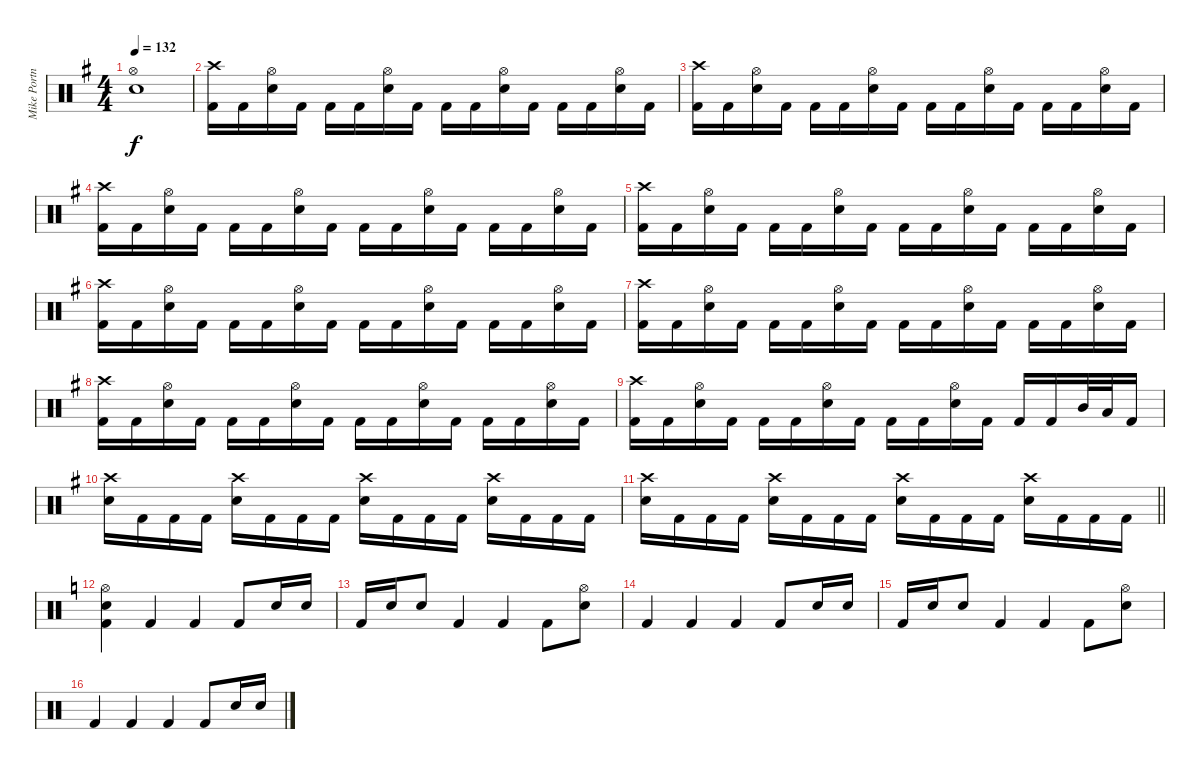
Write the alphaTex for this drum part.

\track ("Mike Portnoy" "Mike Portn") {instrument percussion}
\staff {score}
\articulation defaults
\ts (4 4)
\tempo 132
\clef neutral
\ks g
("Hi-Hat (open)" "Snare (hit) 2").1{dy f} |
("Crash high (hit)" "Kick (hit) 2").16 "Kick (hit) 2".16 ("Hi-Hat (open)" "Snare (hit) 2").16 "Kick (hit) 2".16 "Kick (hit) 2".16 "Kick (hit) 2".16 ("Hi-Hat (open)" "Snare (hit) 2").16 "Kick (hit) 2".16 "Kick (hit) 2".16 "Kick (hit) 2".16 ("Hi-Hat (open)" "Snare (hit) 2").16 "Kick (hit) 2".16 "Kick (hit) 2".16 "Kick (hit) 2".16 ("Hi-Hat (open)" "Snare (hit) 2").16 "Kick (hit) 2".16 |
("Crash high (hit)" "Kick (hit) 2").16 "Kick (hit) 2".16 ("Hi-Hat (open)" "Snare (hit) 2").16 "Kick (hit) 2".16 "Kick (hit) 2".16 "Kick (hit) 2".16 ("Hi-Hat (open)" "Snare (hit) 2").16 "Kick (hit) 2".16 "Kick (hit) 2".16 "Kick (hit) 2".16 ("Hi-Hat (open)" "Snare (hit) 2").16 "Kick (hit) 2".16 "Kick (hit) 2".16 "Kick (hit) 2".16 ("Hi-Hat (open)" "Snare (hit) 2").16 "Kick (hit) 2".16 |
("Crash high (hit)" "Kick (hit) 2").16 "Kick (hit) 2".16 ("Hi-Hat (open)" "Snare (hit) 2").16 "Kick (hit) 2".16 "Kick (hit) 2".16 "Kick (hit) 2".16 ("Hi-Hat (open)" "Snare (hit) 2").16 "Kick (hit) 2".16 "Kick (hit) 2".16 "Kick (hit) 2".16 ("Hi-Hat (open)" "Snare (hit) 2").16 "Kick (hit) 2".16 "Kick (hit) 2".16 "Kick (hit) 2".16 ("Hi-Hat (open)" "Snare (hit) 2").16 "Kick (hit) 2".16 |
("Crash high (hit)" "Kick (hit) 2").16 "Kick (hit) 2".16 ("Hi-Hat (open)" "Snare (hit) 2").16 "Kick (hit) 2".16 "Kick (hit) 2".16 "Kick (hit) 2".16 ("Hi-Hat (open)" "Snare (hit) 2").16 "Kick (hit) 2".16 "Kick (hit) 2".16 "Kick (hit) 2".16 ("Hi-Hat (open)" "Snare (hit) 2").16 "Kick (hit) 2".16 "Kick (hit) 2".16 "Kick (hit) 2".16 ("Hi-Hat (open)" "Snare (hit) 2").16 "Kick (hit) 2".16 |
("Crash high (hit)" "Kick (hit) 2").16 "Kick (hit) 2".16 ("Hi-Hat (open)" "Snare (hit) 2").16 "Kick (hit) 2".16 "Kick (hit) 2".16 "Kick (hit) 2".16 ("Hi-Hat (open)" "Snare (hit) 2").16 "Kick (hit) 2".16 "Kick (hit) 2".16 "Kick (hit) 2".16 ("Hi-Hat (open)" "Snare (hit) 2").16 "Kick (hit) 2".16 "Kick (hit) 2".16 "Kick (hit) 2".16 ("Hi-Hat (open)" "Snare (hit) 2").16 "Kick (hit) 2".16 |
("Crash high (hit)" "Kick (hit) 2").16 "Kick (hit) 2".16 ("Hi-Hat (open)" "Snare (hit) 2").16 "Kick (hit) 2".16 "Kick (hit) 2".16 "Kick (hit) 2".16 ("Hi-Hat (open)" "Snare (hit) 2").16 "Kick (hit) 2".16 "Kick (hit) 2".16 "Kick (hit) 2".16 ("Hi-Hat (open)" "Snare (hit) 2").16 "Kick (hit) 2".16 "Kick (hit) 2".16 "Kick (hit) 2".16 ("Hi-Hat (open)" "Snare (hit) 2").16 "Kick (hit) 2".16 |
("Crash high (hit)" "Kick (hit) 2").16 "Kick (hit) 2".16 ("Hi-Hat (open)" "Snare (hit) 2").16 "Kick (hit) 2".16 "Kick (hit) 2".16 "Kick (hit) 2".16 ("Hi-Hat (open)" "Snare (hit) 2").16 "Kick (hit) 2".16 "Kick (hit) 2".16 "Kick (hit) 2".16 ("Hi-Hat (open)" "Snare (hit) 2").16 "Kick (hit) 2".16 "Kick (hit) 2".16 "Kick (hit) 2".16 ("Hi-Hat (open)" "Snare (hit) 2").16 "Kick (hit) 2".16 |
("Crash high (hit)" "Kick (hit) 2").16 "Kick (hit) 2".16 ("Hi-Hat (open)" "Snare (hit) 2").16 "Kick (hit) 2".16 "Kick (hit) 2".16 "Kick (hit) 2".16 ("Hi-Hat (open)" "Snare (hit) 2").16 "Kick (hit) 2".16 "Kick (hit) 2".16 "Kick (hit) 2".16 ("Hi-Hat (open)" "Snare (hit) 2").16 "Kick (hit) 2".16 "Kick (hit) 2".16 "Kick (hit) 2".16 "Mid Tom (hit)".32 "Low Tom (hit)".32 "Kick (hit) 2".16 |
("Crash high (hit)" "Snare (hit) 2").16 "Kick (hit) 2".16 "Kick (hit) 2".16 "Kick (hit) 2".16 ("Crash high (hit)" "Snare (hit) 2").16 "Kick (hit) 2".16 "Kick (hit) 2".16 "Kick (hit) 2".16 ("Crash high (hit)" "Snare (hit) 2").16 "Kick (hit) 2".16 "Kick (hit) 2".16 "Kick (hit) 2".16 ("Crash high (hit)" "Snare (hit) 2").16 "Kick (hit) 2".16 "Kick (hit) 2".16 "Kick (hit) 2".16 |
\barLineRight lightlight
("Crash high (hit)" "Snare (hit) 2").16 "Kick (hit) 2".16 "Kick (hit) 2".16 "Kick (hit) 2".16 ("Crash high (hit)" "Snare (hit) 2").16 "Kick (hit) 2".16 "Kick (hit) 2".16 "Kick (hit) 2".16 ("Crash high (hit)" "Snare (hit) 2").16 "Kick (hit) 2".16 "Kick (hit) 2".16 "Kick (hit) 2".16 ("Crash high (hit)" "Snare (hit) 2").16 "Kick (hit) 2".16 "Kick (hit) 2".16 "Kick (hit) 2".16 |
\ks c
("Hi-Hat (open)" "Snare (hit) 2" "Kick (hit) 2").4 "Kick (hit) 2".4 "Kick (hit) 2".4 "Kick (hit) 2".8 "Snare (hit) 2".16 "Snare (hit) 2".16 |
"Kick (hit) 2".16 "Snare (hit) 2".16 "Snare (hit) 2".8 "Kick (hit) 2".4 "Kick (hit) 2".4 "Kick (hit) 2".8 ("Hi-Hat (open)" "Snare (hit) 2").8 |
"Kick (hit) 2".4 "Kick (hit) 2".4 "Kick (hit) 2".4 "Kick (hit) 2".8 "Snare (hit) 2".16 "Snare (hit) 2".16 |
"Kick (hit) 2".16 "Snare (hit) 2".16 "Snare (hit) 2".8 "Kick (hit) 2".4 "Kick (hit) 2".4 "Kick (hit) 2".8 ("Hi-Hat (open)" "Snare (hit) 2").8 |
"Kick (hit) 2".4 "Kick (hit) 2".4 "Kick (hit) 2".4 "Kick (hit) 2".8 "Snare (hit) 2".16 "Snare (hit) 2".16
